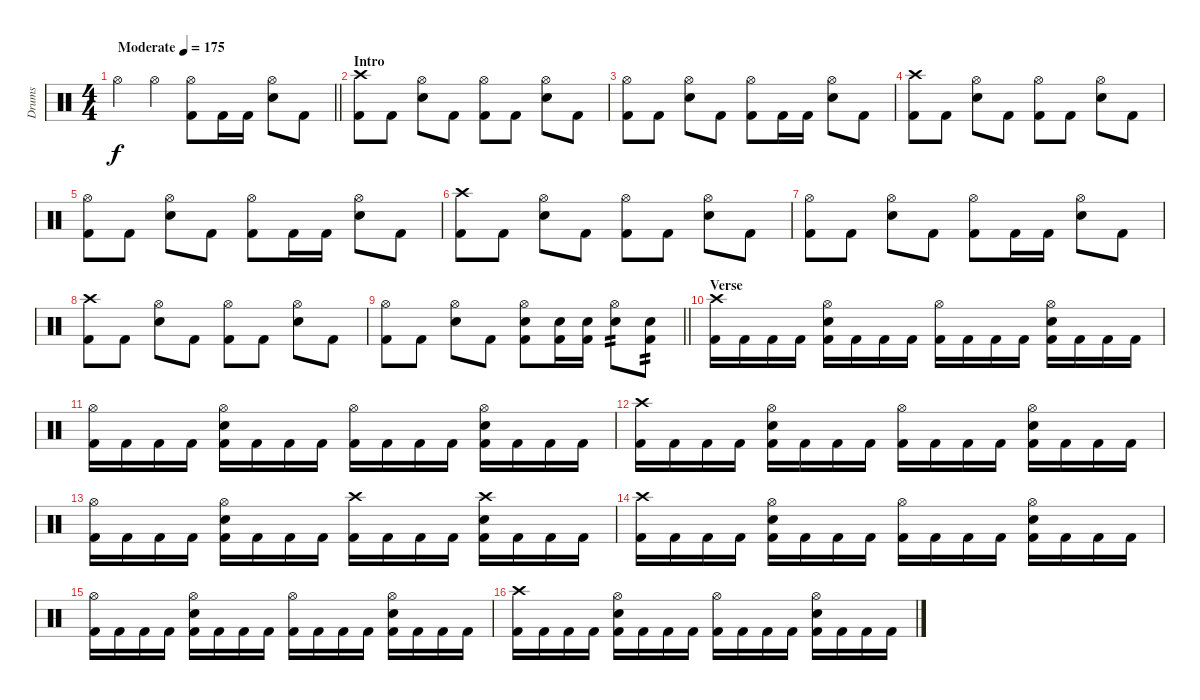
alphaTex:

\track ("Drums" "Drums") {instrument percussion}
\staff {score}
\articulation defaults
\ts (4 4)
\tempo (175 "Moderate")
\clef neutral
\barLineRight lightlight
\ks c "Hi-Hat (open)".4{dy f} "Hi-Hat (open)".4
("Hi-Hat (open)" "Kick (hit) 2").8 "Kick (hit) 2".16 "Kick (hit) 2".16 ("Hi-Hat (open)" "Snare (hit) 2").8 "Kick (hit) 2".8 |
\section ("" "Intro")
("Crash high (hit)" "Kick (hit) 2").8 "Kick (hit) 2".8 ("Hi-Hat (open)" "Snare (hit) 2").8 "Kick (hit) 2".8 ("Hi-Hat (open)" "Kick (hit) 2").8 "Kick (hit) 2".8 ("Hi-Hat (open)" "Snare (hit) 2").8 "Kick (hit) 2".8 |
("Hi-Hat (open)" "Kick (hit) 2").8 "Kick (hit) 2".8 ("Hi-Hat (open)" "Snare (hit) 2").8 "Kick (hit) 2".8 ("Hi-Hat (open)" "Kick (hit) 2").8 "Kick (hit) 2".16 "Kick (hit) 2".16 ("Hi-Hat (open)" "Snare (hit) 2").8 "Kick (hit) 2".8 |
("Crash high (hit)" "Kick (hit) 2").8 "Kick (hit) 2".8 ("Hi-Hat (open)" "Snare (hit) 2").8 "Kick (hit) 2".8 ("Hi-Hat (open)" "Kick (hit) 2").8 "Kick (hit) 2".8 ("Hi-Hat (open)" "Snare (hit) 2").8 "Kick (hit) 2".8 |
("Hi-Hat (open)" "Kick (hit) 2").8 "Kick (hit) 2".8 ("Hi-Hat (open)" "Snare (hit) 2").8 "Kick (hit) 2".8 ("Hi-Hat (open)" "Kick (hit) 2").8 "Kick (hit) 2".16 "Kick (hit) 2".16 ("Hi-Hat (open)" "Snare (hit) 2").8 "Kick (hit) 2".8 |
("Crash high (hit)" "Kick (hit) 2").8 "Kick (hit) 2".8 ("Hi-Hat (open)" "Snare (hit) 2").8 "Kick (hit) 2".8 ("Hi-Hat (open)" "Kick (hit) 2").8 "Kick (hit) 2".8 ("Hi-Hat (open)" "Snare (hit) 2").8 "Kick (hit) 2".8 |
("Hi-Hat (open)" "Kick (hit) 2").8 "Kick (hit) 2".8 ("Hi-Hat (open)" "Snare (hit) 2").8 "Kick (hit) 2".8 ("Hi-Hat (open)" "Kick (hit) 2").8 "Kick (hit) 2".16 "Kick (hit) 2".16 ("Hi-Hat (open)" "Snare (hit) 2").8 "Kick (hit) 2".8 |
("Crash high (hit)" "Kick (hit) 2").8 "Kick (hit) 2".8 ("Hi-Hat (open)" "Snare (hit) 2").8 "Kick (hit) 2".8 ("Hi-Hat (open)" "Kick (hit) 2").8 "Kick (hit) 2".8 ("Hi-Hat (open)" "Snare (hit) 2").8 "Kick (hit) 2".8 |
\barLineRight lightlight
("Hi-Hat (open)" "Kick (hit) 2").8 "Kick (hit) 2".8 ("Hi-Hat (open)" "Snare (hit) 2").8 "Kick (hit) 2".8 ("Hi-Hat (open)" "Snare (hit) 2" "Kick (hit) 2").8 ("Snare (hit) 2" "Kick (hit) 2").16 ("Snare (hit) 2" "Kick (hit) 2").16 ("Hi-Hat (open)" "Snare (hit) 2").8{tp 2} ("Snare (hit) 2" "Kick (hit) 2").8{tp 2} |
\section ("" "Verse")
("Crash high (hit)" "Kick (hit) 2").16 "Kick (hit) 2".16 "Kick (hit) 2".16 "Kick (hit) 2".16 ("Hi-Hat (open)" "Snare (hit) 2" "Kick (hit) 2").16 "Kick (hit) 2".16 "Kick (hit) 2".16 "Kick (hit) 2".16 ("Hi-Hat (open)" "Kick (hit) 2").16 "Kick (hit) 2".16 "Kick (hit) 2".16 "Kick (hit) 2".16 ("Hi-Hat (open)" "Snare (hit) 2" "Kick (hit) 2").16 "Kick (hit) 2".16 "Kick (hit) 2".16 "Kick (hit) 2".16 |
("Hi-Hat (open)" "Kick (hit) 2").16 "Kick (hit) 2".16 "Kick (hit) 2".16 "Kick (hit) 2".16 ("Hi-Hat (open)" "Snare (hit) 2" "Kick (hit) 2").16 "Kick (hit) 2".16 "Kick (hit) 2".16 "Kick (hit) 2".16 ("Hi-Hat (open)" "Kick (hit) 2").16 "Kick (hit) 2".16 "Kick (hit) 2".16 "Kick (hit) 2".16 ("Hi-Hat (open)" "Snare (hit) 2" "Kick (hit) 2").16 "Kick (hit) 2".16 "Kick (hit) 2".16 "Kick (hit) 2".16 |
("Crash high (hit)" "Kick (hit) 2").16 "Kick (hit) 2".16 "Kick (hit) 2".16 "Kick (hit) 2".16 ("Hi-Hat (open)" "Snare (hit) 2" "Kick (hit) 2").16 "Kick (hit) 2".16 "Kick (hit) 2".16 "Kick (hit) 2".16 ("Hi-Hat (open)" "Kick (hit) 2").16 "Kick (hit) 2".16 "Kick (hit) 2".16 "Kick (hit) 2".16 ("Hi-Hat (open)" "Snare (hit) 2" "Kick (hit) 2").16 "Kick (hit) 2".16 "Kick (hit) 2".16 "Kick (hit) 2".16 |
("Hi-Hat (open)" "Kick (hit) 2").16 "Kick (hit) 2".16 "Kick (hit) 2".16 "Kick (hit) 2".16 ("Hi-Hat (open)" "Snare (hit) 2" "Kick (hit) 2").16 "Kick (hit) 2".16 "Kick (hit) 2".16 "Kick (hit) 2".16 ("Crash high (hit)" "Kick (hit) 2").16 "Kick (hit) 2".16 "Kick (hit) 2".16 "Kick (hit) 2".16 ("Crash high (hit)" "Snare (hit) 2" "Kick (hit) 2").16 "Kick (hit) 2".16 "Kick (hit) 2".16 "Kick (hit) 2".16 |
("Crash high (hit)" "Kick (hit) 2").16 "Kick (hit) 2".16 "Kick (hit) 2".16 "Kick (hit) 2".16 ("Hi-Hat (open)" "Snare (hit) 2" "Kick (hit) 2").16 "Kick (hit) 2".16 "Kick (hit) 2".16 "Kick (hit) 2".16 ("Hi-Hat (open)" "Kick (hit) 2").16 "Kick (hit) 2".16 "Kick (hit) 2".16 "Kick (hit) 2".16 ("Hi-Hat (open)" "Snare (hit) 2" "Kick (hit) 2").16 "Kick (hit) 2".16 "Kick (hit) 2".16 "Kick (hit) 2".16 |
("Hi-Hat (open)" "Kick (hit) 2").16 "Kick (hit) 2".16 "Kick (hit) 2".16 "Kick (hit) 2".16 ("Hi-Hat (open)" "Snare (hit) 2" "Kick (hit) 2").16 "Kick (hit) 2".16 "Kick (hit) 2".16 "Kick (hit) 2".16 ("Hi-Hat (open)" "Kick (hit) 2").16 "Kick (hit) 2".16 "Kick (hit) 2".16 "Kick (hit) 2".16 ("Hi-Hat (open)" "Snare (hit) 2" "Kick (hit) 2").16 "Kick (hit) 2".16 "Kick (hit) 2".16 "Kick (hit) 2".16 |
("Crash high (hit)" "Kick (hit) 2").16 "Kick (hit) 2".16 "Kick (hit) 2".16 "Kick (hit) 2".16 ("Hi-Hat (open)" "Snare (hit) 2" "Kick (hit) 2").16 "Kick (hit) 2".16 "Kick (hit) 2".16 "Kick (hit) 2".16 ("Hi-Hat (open)" "Kick (hit) 2").16 "Kick (hit) 2".16 "Kick (hit) 2".16 "Kick (hit) 2".16 ("Hi-Hat (open)" "Snare (hit) 2" "Kick (hit) 2").16 "Kick (hit) 2".16 "Kick (hit) 2".16 "Kick (hit) 2".16
